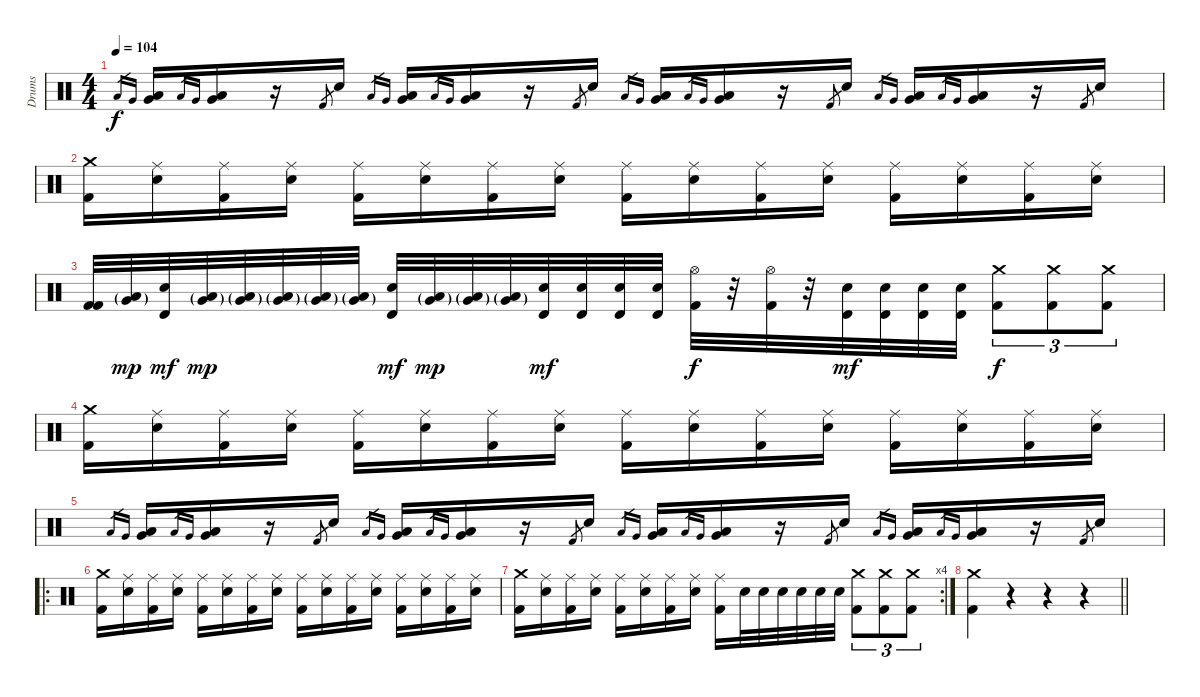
\track ("Drums" "Drums") {instrument percussion}
\staff {score}
\articulation defaults
\ts (4 4)
\tempo 104
\clef neutral
\ks c "Low Floor Tom (hit)".16{gr dy f} "Very Low Tom (hit)".16{gr}
("Very Low Tom (hit)" "Low Tom (hit)").16 "Low Floor Tom (hit)".16{gr} "Very Low Tom (hit)".16{gr} ("Very Low Tom (hit)" "Low Tom (hit)").16 r.16 "Kick (hit) 2".8{gr} "Electric Snare (hit)".16 "Low Floor Tom (hit)".16{gr} "Very Low Tom (hit)".16{gr} ("Very Low Tom (hit)" "Low Tom (hit)").16 "Low Floor Tom (hit)".16{gr} "Very Low Tom (hit)".16{gr} ("Very Low Tom (hit)" "Low Tom (hit)").16 r.16 "Kick (hit) 2".8{gr} "Electric Snare (hit)".16 "Low Floor Tom (hit)".16{gr} "Very Low Tom (hit)".16{gr} ("Very Low Tom (hit)" "Low Tom (hit)").16 "Low Floor Tom (hit)".16{gr} "Very Low Tom (hit)".16{gr} ("Very Low Tom (hit)" "Low Tom (hit)").16 r.16 "Kick (hit) 2".8{gr} "Electric Snare (hit)".16 "Low Floor Tom (hit)".16{gr} "Very Low Tom (hit)".16{gr} ("Very Low Tom (hit)" "Low Tom (hit)").16 "Low Floor Tom (hit)".16{gr} "Very Low Tom (hit)".16{gr} ("Very Low Tom (hit)" "Low Tom (hit)").16 r.16 "Kick (hit) 2".8{gr} "Electric Snare (hit)".16 |
("Crash medium (hit)" "Kick (hit) 2").16 ("Ride (middle)" "Electric Snare (hit)").16 ("Ride (middle)" "Kick (hit) 2").16 ("Ride (middle)" "Electric Snare (hit)").16 ("Ride (middle)" "Kick (hit) 2").16 ("Ride (middle)" "Electric Snare (hit)").16 ("Ride (middle)" "Kick (hit) 2").16 ("Ride (middle)" "Electric Snare (hit)").16 ("Ride (middle)" "Kick (hit) 2").16 ("Ride (middle)" "Electric Snare (hit)").16 ("Ride (middle)" "Kick (hit) 2").16 ("Ride (middle)" "Electric Snare (hit)").16 ("Ride (middle)" "Kick (hit) 2").16 ("Ride (middle)" "Electric Snare (hit)").16 ("Ride (middle)" "Kick (hit) 2").16 ("Ride (middle)" "Electric Snare (hit)").16 |
("Kick (hit) 2" "Kick (hit) 2").32 ("Very Low Tom (hit)"{g} "Low Tom (hit)"{g}).32{dy mp} ("Electric Snare (hit)" "Timbale high (hit)").32{dy mf} ("Very Low Tom (hit)"{g} "Low Tom (hit)"{g}).32{dy mp} ("Very Low Tom (hit)"{g} "Low Tom (hit)"{g}).32 ("Very Low Tom (hit)"{g} "Low Tom (hit)"{g}).32 ("Very Low Tom (hit)"{g} "Low Tom (hit)"{g}).32 ("Very Low Tom (hit)"{g} "Low Tom (hit)"{g}).32 ("Electric Snare (hit)" "Timbale high (hit)").32{dy mf} ("Very Low Tom (hit)"{g} "Low Tom (hit)"{g}).32{dy mp} ("Very Low Tom (hit)"{g} "Low Tom (hit)"{g}).32 ("Very Low Tom (hit)"{g} "Low Tom (hit)"{g}).32 ("Electric Snare (hit)" "Timbale high (hit)").32{dy mf} ("Electric Snare (hit)" "Timbale high (hit)").32 ("Electric Snare (hit)" "Timbale high (hit)").32 ("Electric Snare (hit)" "Timbale high (hit)").32 ("Hi-Hat (open)" "Kick (hit) 2").32{dy f} r.32 ("Hi-Hat (open)" "Kick (hit) 2").32 r.32 ("Electric Snare (hit)" "Timbale high (hit)").32{dy mf} ("Electric Snare (hit)" "Timbale high (hit)").32 ("Electric Snare (hit)" "Timbale high (hit)").32 ("Electric Snare (hit)" "Timbale high (hit)").32 ("Crash medium (hit)" "Kick (hit) 2").8{tu (3 2) dy f} ("Crash medium (hit)" "Kick (hit) 2").8{tu (3 2)} ("Crash medium (hit)" "Kick (hit) 2").8{tu (3 2)} |
("Crash medium (hit)" "Kick (hit) 2").16 ("Ride (middle)" "Electric Snare (hit)").16 ("Ride (middle)" "Kick (hit) 2").16 ("Ride (middle)" "Electric Snare (hit)").16 ("Ride (middle)" "Kick (hit) 2").16 ("Ride (middle)" "Electric Snare (hit)").16 ("Ride (middle)" "Kick (hit) 2").16 ("Ride (middle)" "Electric Snare (hit)").16 ("Ride (middle)" "Kick (hit) 2").16 ("Ride (middle)" "Electric Snare (hit)").16 ("Ride (middle)" "Kick (hit) 2").16 ("Ride (middle)" "Electric Snare (hit)").16 ("Ride (middle)" "Kick (hit) 2").16 ("Ride (middle)" "Electric Snare (hit)").16 ("Ride (middle)" "Kick (hit) 2").16 ("Ride (middle)" "Electric Snare (hit)").16 |
"Low Floor Tom (hit)".16{gr} "Very Low Tom (hit)".16{gr} ("Very Low Tom (hit)" "Low Tom (hit)").16 "Low Floor Tom (hit)".16{gr} "Very Low Tom (hit)".16{gr} ("Very Low Tom (hit)" "Low Tom (hit)").16 r.16 "Kick (hit) 2".8{gr} "Electric Snare (hit)".16 "Low Floor Tom (hit)".16{gr} "Very Low Tom (hit)".16{gr} ("Very Low Tom (hit)" "Low Tom (hit)").16 "Low Floor Tom (hit)".16{gr} "Very Low Tom (hit)".16{gr} ("Very Low Tom (hit)" "Low Tom (hit)").16 r.16 "Kick (hit) 2".8{gr} "Electric Snare (hit)".16 "Low Floor Tom (hit)".16{gr} "Very Low Tom (hit)".16{gr} ("Very Low Tom (hit)" "Low Tom (hit)").16 "Low Floor Tom (hit)".16{gr} "Very Low Tom (hit)".16{gr} ("Very Low Tom (hit)" "Low Tom (hit)").16 r.16 "Kick (hit) 2".8{gr} "Electric Snare (hit)".16 "Low Floor Tom (hit)".16{gr} "Very Low Tom (hit)".16{gr} ("Very Low Tom (hit)" "Low Tom (hit)").16 "Low Floor Tom (hit)".16{gr} "Very Low Tom (hit)".16{gr} ("Very Low Tom (hit)" "Low Tom (hit)").16 r.16 "Kick (hit) 2".8{gr} "Electric Snare (hit)".16 |
\ro
("Crash medium (hit)" "Kick (hit) 2").16 ("Ride (middle)" "Electric Snare (hit)").16 ("Ride (middle)" "Kick (hit) 2").16 ("Ride (middle)" "Electric Snare (hit)").16 ("Ride (middle)" "Kick (hit) 2").16 ("Ride (middle)" "Electric Snare (hit)").16 ("Ride (middle)" "Kick (hit) 2").16 ("Ride (middle)" "Electric Snare (hit)").16 ("Ride (middle)" "Kick (hit) 2").16 ("Ride (middle)" "Electric Snare (hit)").16 ("Ride (middle)" "Kick (hit) 2").16 ("Ride (middle)" "Electric Snare (hit)").16 ("Ride (middle)" "Kick (hit) 2").16 ("Ride (middle)" "Electric Snare (hit)").16 ("Ride (middle)" "Kick (hit) 2").16 ("Ride (middle)" "Electric Snare (hit)").16 |
\rc 4
("Crash medium (hit)" "Kick (hit) 2").16 ("Ride (middle)" "Electric Snare (hit)").16 ("Ride (middle)" "Kick (hit) 2").16 ("Ride (middle)" "Electric Snare (hit)").16 ("Ride (middle)" "Kick (hit) 2").16 ("Ride (middle)" "Electric Snare (hit)").16 ("Ride (middle)" "Kick (hit) 2").16 ("Ride (middle)" "Electric Snare (hit)").16 ("Ride (middle)" "Kick (hit) 2").16 "Electric Snare (hit)".32 "Electric Snare (hit)".32 "Electric Snare (hit)".32 "Electric Snare (hit)".32 "Electric Snare (hit)".32 "Electric Snare (hit)".32 ("Crash medium (hit)" "Kick (hit) 2").8{tu (3 2)} ("Crash medium (hit)" "Kick (hit) 2").8{tu (3 2)} ("Crash medium (hit)" "Kick (hit) 2").8{tu (3 2)} |
\barLineRight lightlight
("Crash medium (hit)" "Kick (hit) 2").4 r.4 r.4 r.4
